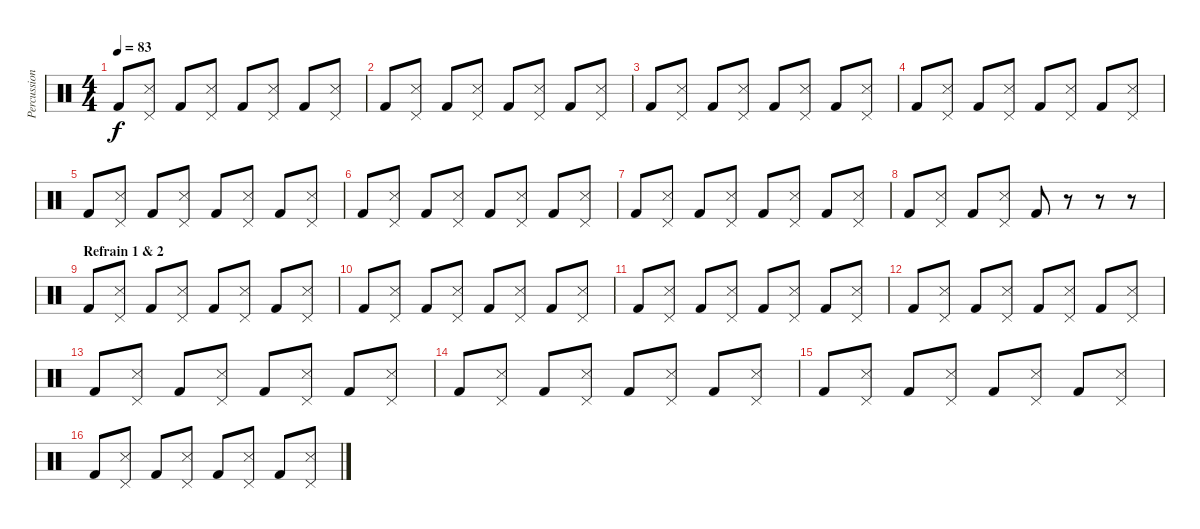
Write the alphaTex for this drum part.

\track ("Percussions" "Percussion") {instrument percussion}
\staff {score}
\articulation defaults
\ts (4 4)
\tempo 83
\clef neutral
\ks c "Kick (hit) 2".8{dy f}
("Pedal Hi-Hat (hit)" "Snare (side stick) 3").8 "Kick (hit) 2".8 ("Pedal Hi-Hat (hit)" "Snare (side stick) 3").8 "Kick (hit) 2".8 ("Pedal Hi-Hat (hit)" "Snare (side stick) 3").8 "Kick (hit) 2".8 ("Pedal Hi-Hat (hit)" "Snare (side stick) 3").8 |
"Kick (hit) 2".8 ("Pedal Hi-Hat (hit)" "Snare (side stick) 3").8 "Kick (hit) 2".8 ("Pedal Hi-Hat (hit)" "Snare (side stick) 3").8 "Kick (hit) 2".8 ("Pedal Hi-Hat (hit)" "Snare (side stick) 3").8 "Kick (hit) 2".8 ("Pedal Hi-Hat (hit)" "Snare (side stick) 3").8 |
"Kick (hit) 2".8 ("Pedal Hi-Hat (hit)" "Snare (side stick) 3").8 "Kick (hit) 2".8 ("Pedal Hi-Hat (hit)" "Snare (side stick) 3").8 "Kick (hit) 2".8 ("Pedal Hi-Hat (hit)" "Snare (side stick) 3").8 "Kick (hit) 2".8 ("Pedal Hi-Hat (hit)" "Snare (side stick) 3").8 |
"Kick (hit) 2".8 ("Pedal Hi-Hat (hit)" "Snare (side stick) 3").8 "Kick (hit) 2".8 ("Pedal Hi-Hat (hit)" "Snare (side stick) 3").8 "Kick (hit) 2".8 ("Pedal Hi-Hat (hit)" "Snare (side stick) 3").8 "Kick (hit) 2".8 ("Pedal Hi-Hat (hit)" "Snare (side stick) 3").8 |
"Kick (hit) 2".8 ("Pedal Hi-Hat (hit)" "Snare (side stick) 3").8 "Kick (hit) 2".8 ("Pedal Hi-Hat (hit)" "Snare (side stick) 3").8 "Kick (hit) 2".8 ("Pedal Hi-Hat (hit)" "Snare (side stick) 3").8 "Kick (hit) 2".8 ("Pedal Hi-Hat (hit)" "Snare (side stick) 3").8 |
"Kick (hit) 2".8 ("Pedal Hi-Hat (hit)" "Snare (side stick) 3").8 "Kick (hit) 2".8 ("Pedal Hi-Hat (hit)" "Snare (side stick) 3").8 "Kick (hit) 2".8 ("Pedal Hi-Hat (hit)" "Snare (side stick) 3").8 "Kick (hit) 2".8 ("Pedal Hi-Hat (hit)" "Snare (side stick) 3").8 |
"Kick (hit) 2".8 ("Pedal Hi-Hat (hit)" "Snare (side stick) 3").8 "Kick (hit) 2".8 ("Pedal Hi-Hat (hit)" "Snare (side stick) 3").8 "Kick (hit) 2".8 ("Pedal Hi-Hat (hit)" "Snare (side stick) 3").8 "Kick (hit) 2".8 ("Pedal Hi-Hat (hit)" "Snare (side stick) 3").8 |
"Kick (hit) 2".8 ("Pedal Hi-Hat (hit)" "Snare (side stick) 3").8 "Kick (hit) 2".8 ("Pedal Hi-Hat (hit)" "Snare (side stick) 3").8 "Kick (hit) 2".8 r.8 r.8 r.8 |
\section ("" "Refrain 1 & 2")
"Kick (hit) 2".8 ("Pedal Hi-Hat (hit)" "Snare (side stick) 3").8 "Kick (hit) 2".8 ("Pedal Hi-Hat (hit)" "Snare (side stick) 3").8 "Kick (hit) 2".8 ("Pedal Hi-Hat (hit)" "Snare (side stick) 3").8 "Kick (hit) 2".8 ("Pedal Hi-Hat (hit)" "Snare (side stick) 3").8 |
"Kick (hit) 2".8 ("Pedal Hi-Hat (hit)" "Snare (side stick) 3").8 "Kick (hit) 2".8 ("Pedal Hi-Hat (hit)" "Snare (side stick) 3").8 "Kick (hit) 2".8 ("Pedal Hi-Hat (hit)" "Snare (side stick) 3").8 "Kick (hit) 2".8 ("Pedal Hi-Hat (hit)" "Snare (side stick) 3").8 |
"Kick (hit) 2".8 ("Pedal Hi-Hat (hit)" "Snare (side stick) 3").8 "Kick (hit) 2".8 ("Pedal Hi-Hat (hit)" "Snare (side stick) 3").8 "Kick (hit) 2".8 ("Pedal Hi-Hat (hit)" "Snare (side stick) 3").8 "Kick (hit) 2".8 ("Pedal Hi-Hat (hit)" "Snare (side stick) 3").8 |
"Kick (hit) 2".8 ("Pedal Hi-Hat (hit)" "Snare (side stick) 3").8 "Kick (hit) 2".8 ("Pedal Hi-Hat (hit)" "Snare (side stick) 3").8 "Kick (hit) 2".8 ("Pedal Hi-Hat (hit)" "Snare (side stick) 3").8 "Kick (hit) 2".8 ("Pedal Hi-Hat (hit)" "Snare (side stick) 3").8 |
"Kick (hit) 2".8 ("Pedal Hi-Hat (hit)" "Snare (side stick) 3").8 "Kick (hit) 2".8 ("Pedal Hi-Hat (hit)" "Snare (side stick) 3").8 "Kick (hit) 2".8 ("Pedal Hi-Hat (hit)" "Snare (side stick) 3").8 "Kick (hit) 2".8 ("Pedal Hi-Hat (hit)" "Snare (side stick) 3").8 |
"Kick (hit) 2".8 ("Pedal Hi-Hat (hit)" "Snare (side stick) 3").8 "Kick (hit) 2".8 ("Pedal Hi-Hat (hit)" "Snare (side stick) 3").8 "Kick (hit) 2".8 ("Pedal Hi-Hat (hit)" "Snare (side stick) 3").8 "Kick (hit) 2".8 ("Pedal Hi-Hat (hit)" "Snare (side stick) 3").8 |
"Kick (hit) 2".8 ("Pedal Hi-Hat (hit)" "Snare (side stick) 3").8 "Kick (hit) 2".8 ("Pedal Hi-Hat (hit)" "Snare (side stick) 3").8 "Kick (hit) 2".8 ("Pedal Hi-Hat (hit)" "Snare (side stick) 3").8 "Kick (hit) 2".8 ("Pedal Hi-Hat (hit)" "Snare (side stick) 3").8 |
"Kick (hit) 2".8 ("Pedal Hi-Hat (hit)" "Snare (side stick) 3").8 "Kick (hit) 2".8 ("Pedal Hi-Hat (hit)" "Snare (side stick) 3").8 "Kick (hit) 2".8 ("Pedal Hi-Hat (hit)" "Snare (side stick) 3").8 "Kick (hit) 2".8 ("Pedal Hi-Hat (hit)" "Snare (side stick) 3").8
